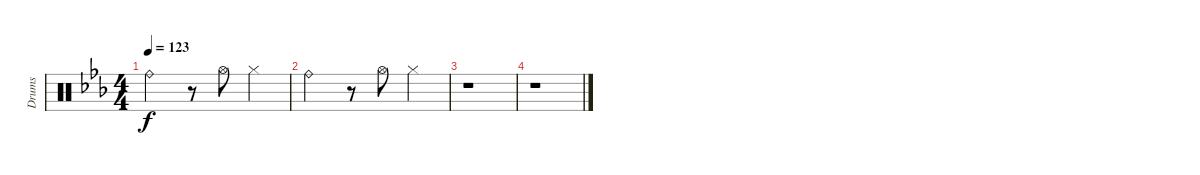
\track ("Drums" "Drums") {instrument percussion}
\staff {score}
\articulation defaults
\ts (4 4)
\tempo 123
\clef neutral
\ks cminor "Ride (bell)".2{dy f volume 6}
r.8 "Hi-Hat (open)".8 "Hi-Hat (closed)".4 |
"Ride (bell)".2 r.8 "Hi-Hat (open)".8 "Hi-Hat (closed)".4 |
r.1 |
r.1
